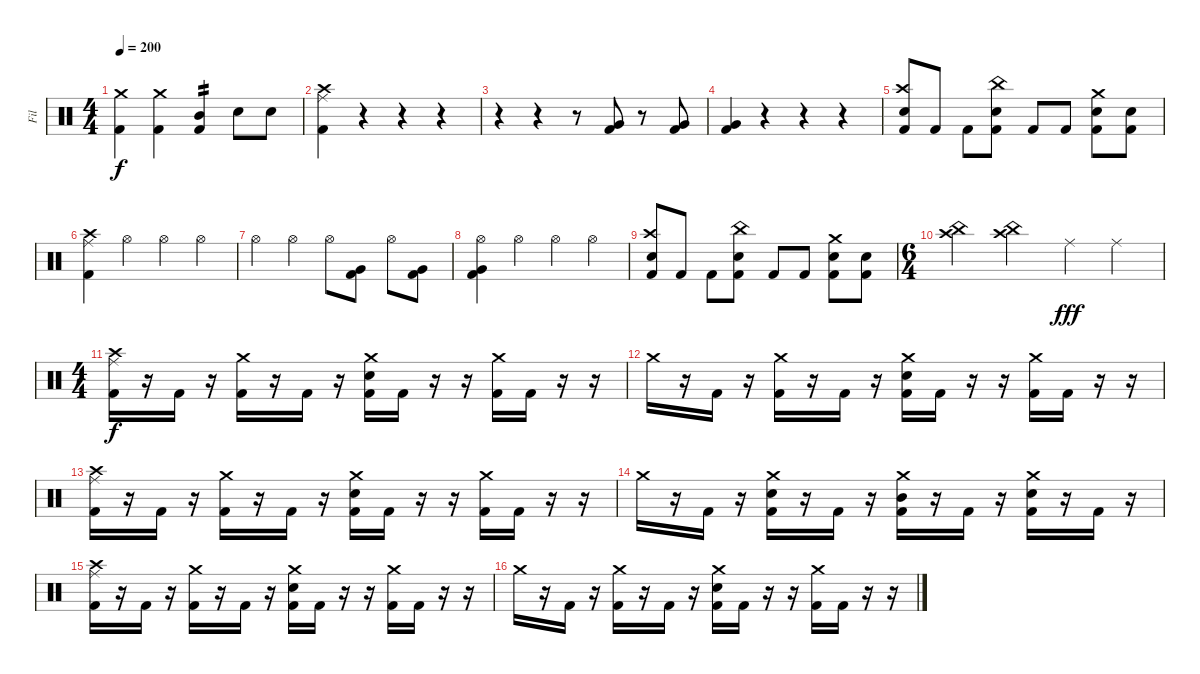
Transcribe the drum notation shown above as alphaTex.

\track ("Fil" "Fil") {instrument percussion}
\staff {score}
\articulation defaults
\ts (4 4)
\tempo 200
\clef neutral
\ks c
("Crash medium (hit)" "Kick (hit) 2").4{dy f} ("Crash medium (hit)" "Kick (hit) 2").4 ("Mid Tom (hit)" "Kick (hit) 2").4{tp 2} "Snare (hit) 2".8 "Snare (hit) 2".8 |
("Crash high (hit)" "Ride (middle)" "Kick (hit) 2").4 r.4 r.4 r.4 |
r.4 r.4 r.8 ("Very Low Tom (hit)" "Kick (hit) 2").8 r.8 ("Very Low Tom (hit)" "Kick (hit) 2").8 |
("Very Low Tom (hit)" "Kick (hit) 2").4 r.4 r.4 r.4 |
("Crash high (hit)" "Electric Snare (hit)" "Kick (hit) 2").8 "Kick (hit) 2".8 "Kick (hit) 2".8 ("China (hit)" "Electric Snare (hit)" "Kick (hit) 2").8 "Kick (hit) 2".8 "Kick (hit) 2".8 ("Crash medium (hit)" "Electric Snare (hit)" "Kick (hit) 2").8 ("Electric Snare (hit)" "Kick (hit) 2").8 |
("Crash high (hit)" "Ride (middle)" "Kick (hit) 2").4 "Hi-Hat (open)".4 "Hi-Hat (open)".4 "Hi-Hat (open)".4 |
"Hi-Hat (open)".4 "Hi-Hat (open)".4 "Hi-Hat (open)".8 ("Very Low Tom (hit)" "Kick (hit) 2").8 "Hi-Hat (open)".8 ("Very Low Tom (hit)" "Kick (hit) 2").8 |
("Hi-Hat (open)" "Very Low Tom (hit)" "Kick (hit) 2").4 "Hi-Hat (open)".4 "Hi-Hat (open)".4 "Hi-Hat (open)".4 |
("Crash high (hit)" "Electric Snare (hit)" "Kick (hit) 2").8 "Kick (hit) 2".8 "Kick (hit) 2".8 ("China (hit)" "Electric Snare (hit)" "Kick (hit) 2").8 "Kick (hit) 2".8 "Kick (hit) 2".8 ("Crash medium (hit)" "Electric Snare (hit)" "Kick (hit) 2").8 ("Electric Snare (hit)" "Kick (hit) 2").8 |
\ts (6 4)
("China (hit)" "Crash high (hit)").2 ("China (hit)" "Crash high (hit)").2 "Ride (middle)".4{dy fff} "Ride (middle)".4 |
\ts (4 4)
("Crash high (hit)" "Ride (middle)" "Kick (hit) 2").16{dy f} r.16 "Kick (hit) 2".16 r.16 ("Crash medium (hit)" "Kick (hit) 2").16 r.16 "Kick (hit) 2".16 r.16 ("Crash medium (hit)" "Electric Snare (hit)" "Kick (hit) 2").16 "Kick (hit) 2".16 r.16 r.16 ("Crash medium (hit)" "Kick (hit) 2").16 "Kick (hit) 2".16 r.16 r.16 |
"Crash medium (hit)".16 r.16 "Kick (hit) 2".16 r.16 ("Crash medium (hit)" "Kick (hit) 2").16 r.16 "Kick (hit) 2".16 r.16 ("Crash medium (hit)" "Electric Snare (hit)" "Kick (hit) 2").16 "Kick (hit) 2".16 r.16 r.16 ("Crash medium (hit)" "Kick (hit) 2").16 "Kick (hit) 2".16 r.16 r.16 |
("Crash high (hit)" "Ride (middle)" "Kick (hit) 2").16 r.16 "Kick (hit) 2".16 r.16 ("Crash medium (hit)" "Kick (hit) 2").16 r.16 "Kick (hit) 2".16 r.16 ("Crash medium (hit)" "Electric Snare (hit)" "Kick (hit) 2").16 "Kick (hit) 2".16 r.16 r.16 ("Crash medium (hit)" "Kick (hit) 2").16 "Kick (hit) 2".16 r.16 r.16 |
"Crash medium (hit)".16 r.16 "Kick (hit) 2".16 r.16 ("Crash medium (hit)" "Electric Snare (hit)" "Kick (hit) 2").16 r.16 "Kick (hit) 2".16 r.16 ("Crash medium (hit)" "Mid Tom (hit)" "Kick (hit) 2").16 r.16 "Kick (hit) 2".16 r.16 ("Crash medium (hit)" "Electric Snare (hit)" "Kick (hit) 2").16 r.16 "Kick (hit) 2".16 r.16 |
("Crash high (hit)" "Ride (middle)" "Kick (hit) 2").16 r.16 "Kick (hit) 2".16 r.16 ("Crash medium (hit)" "Kick (hit) 2").16 r.16 "Kick (hit) 2".16 r.16 ("Crash medium (hit)" "Electric Snare (hit)" "Kick (hit) 2").16 "Kick (hit) 2".16 r.16 r.16 ("Crash medium (hit)" "Kick (hit) 2").16 "Kick (hit) 2".16 r.16 r.16 |
"Crash medium (hit)".16 r.16 "Kick (hit) 2".16 r.16 ("Crash medium (hit)" "Kick (hit) 2").16 r.16 "Kick (hit) 2".16 r.16 ("Crash medium (hit)" "Electric Snare (hit)" "Kick (hit) 2").16 "Kick (hit) 2".16 r.16 r.16 ("Crash medium (hit)" "Kick (hit) 2").16 "Kick (hit) 2".16 r.16 r.16
